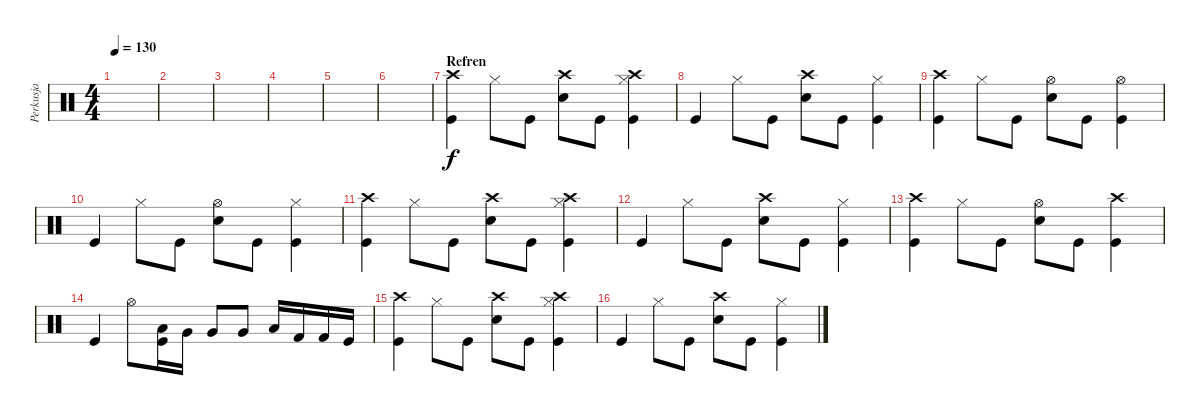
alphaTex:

\track ("Perkusja" "Perkusja") {instrument percussion}
\staff {score}
\articulation defaults
\ts (4 4)
\tempo 130
\clef neutral
\ks c
|
|
|
|
|
|
\section ("" "Refren")
("Crash high (hit)" "Kick (hit)").4 "Hi-Hat (closed)".8 "Kick (hit)".8 ("Crash high (hit)" "Electric Snare (hit)").8 "Kick (hit)".8 ("Crash high (hit)" "Hi-Hat (closed)" "Kick (hit)").4 |
"Kick (hit)".4 "Hi-Hat (closed)".8 "Kick (hit)".8 ("Crash high (hit)" "Electric Snare (hit)").8 "Kick (hit)".8 ("Hi-Hat (closed)" "Kick (hit)").4 |
("Crash high (hit)" "Kick (hit)").4 "Hi-Hat (closed)".8 "Kick (hit)".8 ("Hi-Hat (open)" "Electric Snare (hit)").8 "Kick (hit)".8 ("Hi-Hat (open)" "Kick (hit)").4 |
"Kick (hit)".4 "Hi-Hat (closed)".8 "Kick (hit)".8 ("Hi-Hat (open)" "Electric Snare (hit)").8 "Kick (hit)".8 ("Hi-Hat (closed)" "Kick (hit)").4 |
("Crash high (hit)" "Kick (hit)").4 "Hi-Hat (closed)".8 "Kick (hit)".8 ("Crash high (hit)" "Electric Snare (hit)").8 "Kick (hit)".8 ("Crash high (hit)" "Hi-Hat (closed)" "Kick (hit)").4 |
"Kick (hit)".4 "Hi-Hat (closed)".8 "Kick (hit)".8 ("Crash high (hit)" "Electric Snare (hit)").8 "Kick (hit)".8 ("Hi-Hat (closed)" "Kick (hit)").4 |
("Crash high (hit)" "Kick (hit)").4 "Hi-Hat (closed)".8 "Kick (hit)".8 ("Hi-Hat (open)" "Electric Snare (hit)").8 "Kick (hit)".8 ("Crash high (hit)" "Kick (hit)").4 |
"Kick (hit)".4 "Hi-Hat (open)".8 ("Low Tom (hit)" "Kick (hit)").16 "Very Low Tom (hit)".16 "Very Low Tom (hit)".8 "Very Low Tom (hit)".8 "Low Floor Tom (hit)".16 "Kick (hit) 2".16 "Kick (hit) 2".16 "Kick (hit)".16 |
("Crash high (hit)" "Kick (hit)").4 "Hi-Hat (closed)".8 "Kick (hit)".8 ("Crash high (hit)" "Electric Snare (hit)").8 "Kick (hit)".8 ("Crash high (hit)" "Hi-Hat (closed)" "Kick (hit)").4 |
"Kick (hit)".4 "Hi-Hat (closed)".8 "Kick (hit)".8 ("Crash high (hit)" "Electric Snare (hit)").8 "Kick (hit)".8 ("Hi-Hat (closed)" "Kick (hit)").4
